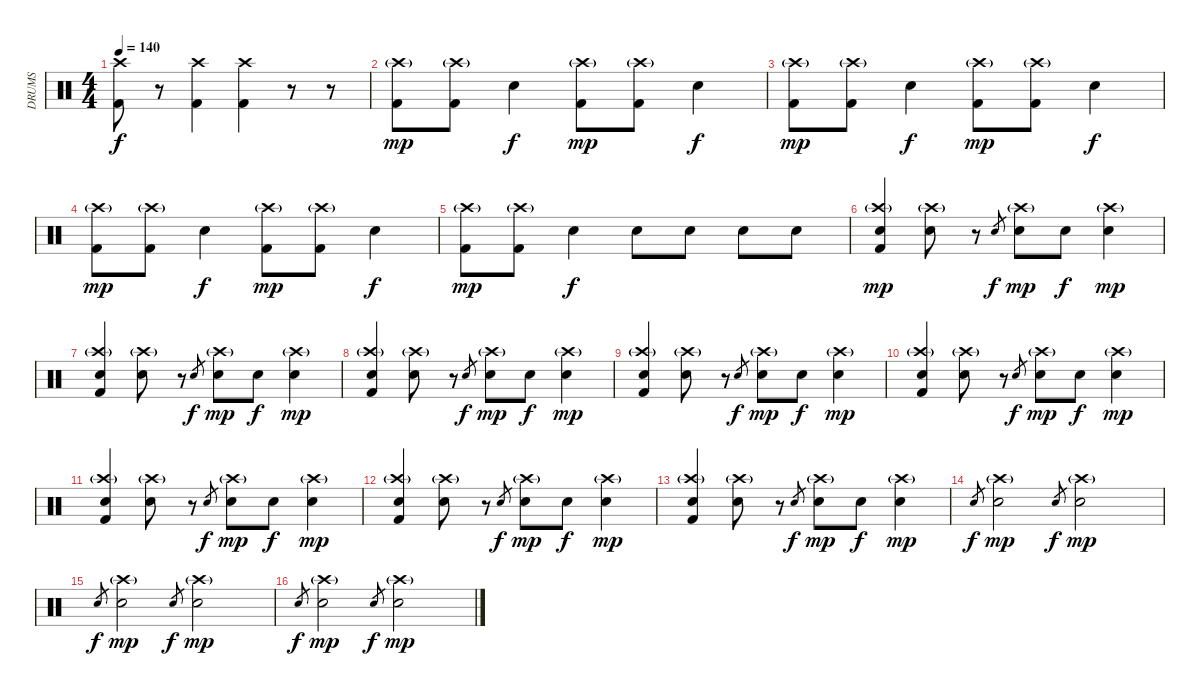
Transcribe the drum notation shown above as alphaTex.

\track ("DRUMS" "DRUMS") {instrument percussion}
\staff {score}
\articulation defaults
\ts (4 4)
\tempo 140
\clef neutral
\ks c
("Kick (hit) 2" "Crash high (hit)").8{dy f} r.8 ("Kick (hit) 2" "Crash high (hit)").4 ("Kick (hit) 2" "Crash high (hit)").4 r.8 r.8 |
("Kick (hit) 2" "Crash high (hit)"{g}).8{dy mp} ("Kick (hit) 2" "Crash high (hit)"{g}).8 "Electric Snare (hit)".4{dy f} ("Kick (hit) 2" "Crash high (hit)"{g}).8{dy mp} ("Kick (hit) 2" "Crash high (hit)"{g}).8 "Electric Snare (hit)".4{dy f} |
("Kick (hit) 2" "Crash high (hit)"{g}).8{dy mp} ("Kick (hit) 2" "Crash high (hit)"{g}).8 "Electric Snare (hit)".4{dy f} ("Kick (hit) 2" "Crash high (hit)"{g}).8{dy mp} ("Kick (hit) 2" "Crash high (hit)"{g}).8 "Electric Snare (hit)".4{dy f} |
("Kick (hit) 2" "Crash high (hit)"{g}).8{dy mp} ("Kick (hit) 2" "Crash high (hit)"{g}).8 "Electric Snare (hit)".4{dy f} ("Kick (hit) 2" "Crash high (hit)"{g}).8{dy mp} ("Kick (hit) 2" "Crash high (hit)"{g}).8 "Electric Snare (hit)".4{dy f} |
("Kick (hit) 2" "Crash high (hit)"{g}).8{dy mp} ("Kick (hit) 2" "Crash high (hit)"{g}).8 "Electric Snare (hit)".4{dy f} "Electric Snare (hit)".8 "Electric Snare (hit)".8 "Electric Snare (hit)".8 "Electric Snare (hit)".8 |
("Kick (hit) 2" "Electric Snare (hit)" "Crash high (hit)"{g}).4{dy mp} ("Electric Snare (hit)" "Crash high (hit)"{g}).8 r.8 "Electric Snare (hit)".8{gr dy f} ("Electric Snare (hit)" "Crash high (hit)"{g}).8{dy mp} "Electric Snare (hit)".8{dy f} ("Electric Snare (hit)" "Crash high (hit)"{g}).4{dy mp} |
("Kick (hit) 2" "Electric Snare (hit)" "Crash high (hit)"{g}).4 ("Electric Snare (hit)" "Crash high (hit)"{g}).8 r.8 "Electric Snare (hit)".8{gr dy f} ("Electric Snare (hit)" "Crash high (hit)"{g}).8{dy mp} "Electric Snare (hit)".8{dy f} ("Electric Snare (hit)" "Crash high (hit)"{g}).4{dy mp} |
("Kick (hit) 2" "Electric Snare (hit)" "Crash high (hit)"{g}).4 ("Electric Snare (hit)" "Crash high (hit)"{g}).8 r.8 "Electric Snare (hit)".8{gr dy f} ("Electric Snare (hit)" "Crash high (hit)"{g}).8{dy mp} "Electric Snare (hit)".8{dy f} ("Electric Snare (hit)" "Crash high (hit)"{g}).4{dy mp} |
("Kick (hit) 2" "Electric Snare (hit)" "Crash high (hit)"{g}).4 ("Electric Snare (hit)" "Crash high (hit)"{g}).8 r.8 "Electric Snare (hit)".8{gr dy f} ("Electric Snare (hit)" "Crash high (hit)"{g}).8{dy mp} "Electric Snare (hit)".8{dy f} ("Electric Snare (hit)" "Crash high (hit)"{g}).4{dy mp} |
("Kick (hit) 2" "Electric Snare (hit)" "Crash high (hit)"{g}).4 ("Electric Snare (hit)" "Crash high (hit)"{g}).8 r.8 "Electric Snare (hit)".8{gr dy f} ("Electric Snare (hit)" "Crash high (hit)"{g}).8{dy mp} "Electric Snare (hit)".8{dy f} ("Electric Snare (hit)" "Crash high (hit)"{g}).4{dy mp} |
("Kick (hit) 2" "Electric Snare (hit)" "Crash high (hit)"{g}).4 ("Electric Snare (hit)" "Crash high (hit)"{g}).8 r.8 "Electric Snare (hit)".8{gr dy f} ("Electric Snare (hit)" "Crash high (hit)"{g}).8{dy mp} "Electric Snare (hit)".8{dy f} ("Electric Snare (hit)" "Crash high (hit)"{g}).4{dy mp} |
("Kick (hit) 2" "Electric Snare (hit)" "Crash high (hit)"{g}).4 ("Electric Snare (hit)" "Crash high (hit)"{g}).8 r.8 "Electric Snare (hit)".8{gr dy f} ("Electric Snare (hit)" "Crash high (hit)"{g}).8{dy mp} "Electric Snare (hit)".8{dy f} ("Electric Snare (hit)" "Crash high (hit)"{g}).4{dy mp} |
("Kick (hit) 2" "Electric Snare (hit)" "Crash high (hit)"{g}).4 ("Electric Snare (hit)" "Crash high (hit)"{g}).8 r.8 "Electric Snare (hit)".8{gr dy f} ("Electric Snare (hit)" "Crash high (hit)"{g}).8{dy mp} "Electric Snare (hit)".8{dy f} ("Electric Snare (hit)" "Crash high (hit)"{g}).4{dy mp} |
"Electric Snare (hit)".8{gr dy f} ("Electric Snare (hit)" "Crash high (hit)"{g}).2{dy mp} "Electric Snare (hit)".8{gr dy f} ("Electric Snare (hit)" "Crash high (hit)"{g}).2{dy mp} |
"Electric Snare (hit)".8{gr dy f} ("Electric Snare (hit)" "Crash high (hit)"{g}).2{dy mp} "Electric Snare (hit)".8{gr dy f} ("Electric Snare (hit)" "Crash high (hit)"{g}).2{dy mp} |
"Electric Snare (hit)".8{gr dy f} ("Electric Snare (hit)" "Crash high (hit)"{g}).2{dy mp} "Electric Snare (hit)".8{gr dy f} ("Electric Snare (hit)" "Crash high (hit)"{g}).2{dy mp}
